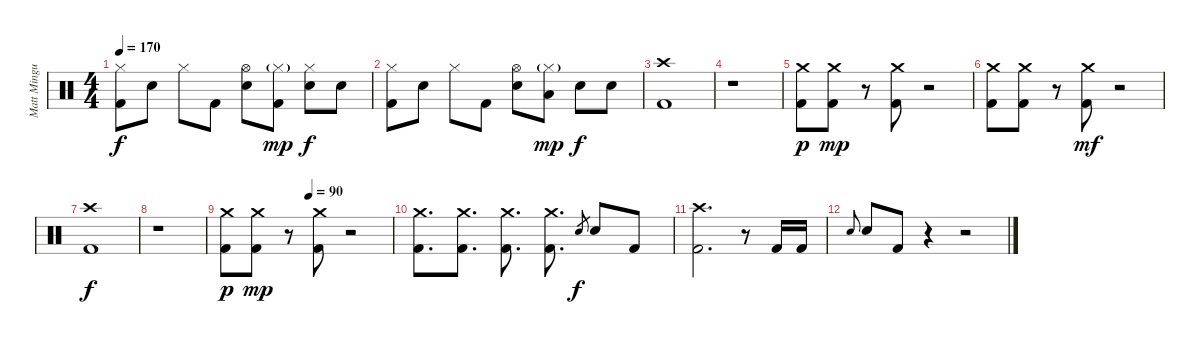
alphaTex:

\track ("Matt Mingus" "Matt Mingu") {instrument percussion}
\staff {score}
\articulation defaults
\ts (4 4)
\tempo 170
\clef neutral
\ks c
("Hi-Hat (closed)" "Kick (hit) 2").8{dy f} "Electric Snare (hit)".8 "Hi-Hat (closed)".8 "Kick (hit) 2".8 ("Hi-Hat (open)" "Electric Snare (hit)").8 ("Hi-Hat (closed)"{g} "Kick (hit) 2").8{dy mp} ("Hi-Hat (closed)" "Electric Snare (hit)").8{dy f} "Electric Snare (hit)".8 |
("Hi-Hat (closed)" "Kick (hit) 2").8 "Electric Snare (hit)".8 "Hi-Hat (closed)".8 "Kick (hit) 2".8 ("Hi-Hat (open)" "Electric Snare (hit)").8 ("Hi-Hat (closed)"{g} "Low Tom (hit)").8{dy mp} "Electric Snare (hit)".8{dy f} "Electric Snare (hit)".8 |
("Crash high (hit)" "Kick (hit) 2").1 |
r.1 |
("Crash medium (hit)" "Kick (hit) 2").8{dy p} ("Crash medium (hit)" "Kick (hit) 2").8{dy mp} r.8 ("Crash medium (hit)" "Kick (hit) 2").8 r.2 |
("Crash medium (hit)" "Kick (hit) 2").8 ("Crash medium (hit)" "Kick (hit) 2").8 r.8 ("Crash medium (hit)" "Kick (hit) 2").8{dy mf} r.2 |
("Crash high (hit)" "Kick (hit) 2").1{dy f} |
r.1 |
\tempo (90 0.5)
("Crash medium (hit)" "Kick (hit) 2").8{dy p} ("Crash medium (hit)" "Kick (hit) 2").8{dy mp} r.8 ("Crash medium (hit)" "Kick (hit) 2").8 r.2 |
("Crash medium (hit)" "Kick (hit) 2").8{d} ("Crash medium (hit)" "Kick (hit) 2").8{d} ("Crash medium (hit)" "Kick (hit) 2").8{d} ("Crash medium (hit)" "Kick (hit) 2").8{d} "Electric Snare (hit)".8{gr dy f} "Electric Snare (hit)".8 "Kick (hit) 2".8 |
("Crash high (hit)" "Kick (hit) 2").2{d} r.8 "Kick (hit) 2".16 "Kick (hit) 2".16 |
"Electric Snare (hit)".8{gr onbeat} "Electric Snare (hit)".8 "Kick (hit) 2".8 r.4 r.2
